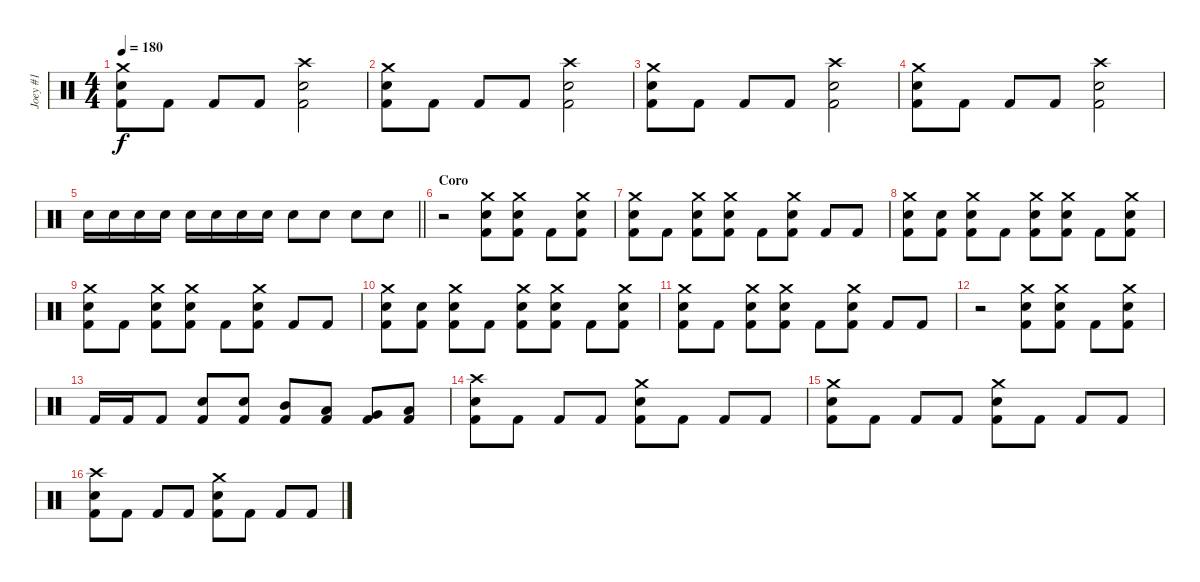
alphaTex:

\track ("Joey #1" "Joey #1") {instrument percussion}
\staff {score}
\articulation defaults
\ts (4 4)
\tempo 180
\clef neutral
\ks c
("Crash medium (hit)" "Electric Snare (hit)" "Kick (hit) 2").8{dy f} "Kick (hit) 2".8 "Kick (hit) 2".8 "Kick (hit) 2".8 ("Crash high (hit)" "Electric Snare (hit)" "Kick (hit) 2").2 |
("Crash medium (hit)" "Electric Snare (hit)" "Kick (hit) 2").8 "Kick (hit) 2".8 "Kick (hit) 2".8 "Kick (hit) 2".8 ("Crash high (hit)" "Electric Snare (hit)" "Kick (hit) 2").2 |
("Crash medium (hit)" "Electric Snare (hit)" "Kick (hit) 2").8 "Kick (hit) 2".8 "Kick (hit) 2".8 "Kick (hit) 2".8 ("Crash high (hit)" "Electric Snare (hit)" "Kick (hit) 2").2 |
("Crash medium (hit)" "Electric Snare (hit)" "Kick (hit) 2").8 "Kick (hit) 2".8 "Kick (hit) 2".8 "Kick (hit) 2".8 ("Crash high (hit)" "Electric Snare (hit)" "Kick (hit) 2").2 |
\barLineRight lightlight "Electric Snare (hit)".16 "Electric Snare (hit)".16 "Electric Snare (hit)".16 "Electric Snare (hit)".16 "Electric Snare (hit)".16 "Electric Snare (hit)".16 "Electric Snare (hit)".16 "Electric Snare (hit)".16 "Electric Snare (hit)".8 "Electric Snare (hit)".8 "Electric Snare (hit)".8 "Electric Snare (hit)".8
|
\section ("" "Coro")
r.2 ("Crash medium (hit)" "Electric Snare (hit)" "Kick (hit) 2").8 ("Crash medium (hit)" "Electric Snare (hit)" "Kick (hit) 2").8 "Kick (hit) 2".8 ("Crash medium (hit)" "Electric Snare (hit)" "Kick (hit) 2").8 |
("Crash medium (hit)" "Electric Snare (hit)" "Kick (hit) 2").8 "Kick (hit) 2".8 ("Crash medium (hit)" "Electric Snare (hit)" "Kick (hit) 2").8 ("Crash medium (hit)" "Electric Snare (hit)" "Kick (hit) 2").8 "Kick (hit) 2".8 ("Crash medium (hit)" "Electric Snare (hit)" "Kick (hit) 2").8 "Kick (hit) 2".8 "Kick (hit) 2".8 |
("Crash medium (hit)" "Electric Snare (hit)" "Kick (hit) 2").8 ("Electric Snare (hit)" "Kick (hit) 2").8 ("Crash medium (hit)" "Electric Snare (hit)" "Kick (hit) 2").8 "Kick (hit) 2".8 ("Crash medium (hit)" "Electric Snare (hit)" "Kick (hit) 2").8 ("Crash medium (hit)" "Electric Snare (hit)" "Kick (hit) 2").8 "Kick (hit) 2".8 ("Crash medium (hit)" "Electric Snare (hit)" "Kick (hit) 2").8 |
("Crash medium (hit)" "Electric Snare (hit)" "Kick (hit) 2").8 "Kick (hit) 2".8 ("Crash medium (hit)" "Electric Snare (hit)" "Kick (hit) 2").8 ("Crash medium (hit)" "Electric Snare (hit)" "Kick (hit) 2").8 "Kick (hit) 2".8 ("Crash medium (hit)" "Electric Snare (hit)" "Kick (hit) 2").8 "Kick (hit) 2".8 "Kick (hit) 2".8 |
("Crash medium (hit)" "Electric Snare (hit)" "Kick (hit) 2").8 ("Electric Snare (hit)" "Kick (hit) 2").8 ("Crash medium (hit)" "Electric Snare (hit)" "Kick (hit) 2").8 "Kick (hit) 2".8 ("Crash medium (hit)" "Electric Snare (hit)" "Kick (hit) 2").8 ("Crash medium (hit)" "Electric Snare (hit)" "Kick (hit) 2").8 "Kick (hit) 2".8 ("Crash medium (hit)" "Electric Snare (hit)" "Kick (hit) 2").8 |
("Crash medium (hit)" "Electric Snare (hit)" "Kick (hit) 2").8 "Kick (hit) 2".8 ("Crash medium (hit)" "Electric Snare (hit)" "Kick (hit) 2").8 ("Crash medium (hit)" "Electric Snare (hit)" "Kick (hit) 2").8 "Kick (hit) 2".8 ("Crash medium (hit)" "Electric Snare (hit)" "Kick (hit) 2").8 "Kick (hit) 2".8 "Kick (hit) 2".8 |
r.2 ("Crash medium (hit)" "Electric Snare (hit)" "Kick (hit) 2").8 ("Crash medium (hit)" "Electric Snare (hit)" "Kick (hit) 2").8 "Kick (hit) 2".8 ("Crash medium (hit)" "Electric Snare (hit)" "Kick (hit) 2").8 |
"Kick (hit) 2".16 "Kick (hit) 2".16 "Kick (hit) 2".8 ("Electric Snare (hit)" "Kick (hit) 2").8 ("Electric Snare (hit)" "Kick (hit) 2").8 ("Mid Tom (hit)" "Kick (hit) 2").8 ("Low Tom (hit)" "Kick (hit) 2").8 ("Very Low Tom (hit)" "Kick (hit) 2").8 ("Low Floor Tom (hit)" "Kick (hit) 2").8 |
("Crash high (hit)" "Electric Snare (hit)" "Kick (hit) 2").8 "Kick (hit) 2".8 "Kick (hit) 2".8 "Kick (hit) 2".8 ("Crash medium (hit)" "Electric Snare (hit)" "Kick (hit) 2").8 "Kick (hit) 2".8 "Kick (hit) 2".8 "Kick (hit) 2".8 |
("Crash medium (hit)" "Electric Snare (hit)" "Kick (hit) 2").8 "Kick (hit) 2".8 "Kick (hit) 2".8 "Kick (hit) 2".8 ("Crash medium (hit)" "Electric Snare (hit)" "Kick (hit) 2").8 "Kick (hit) 2".8 "Kick (hit) 2".8 "Kick (hit) 2".8 |
("Crash high (hit)" "Electric Snare (hit)" "Kick (hit) 2").8 "Kick (hit) 2".8 "Kick (hit) 2".8 "Kick (hit) 2".8 ("Crash medium (hit)" "Electric Snare (hit)" "Kick (hit) 2").8 "Kick (hit) 2".8 "Kick (hit) 2".8 "Kick (hit) 2".8
